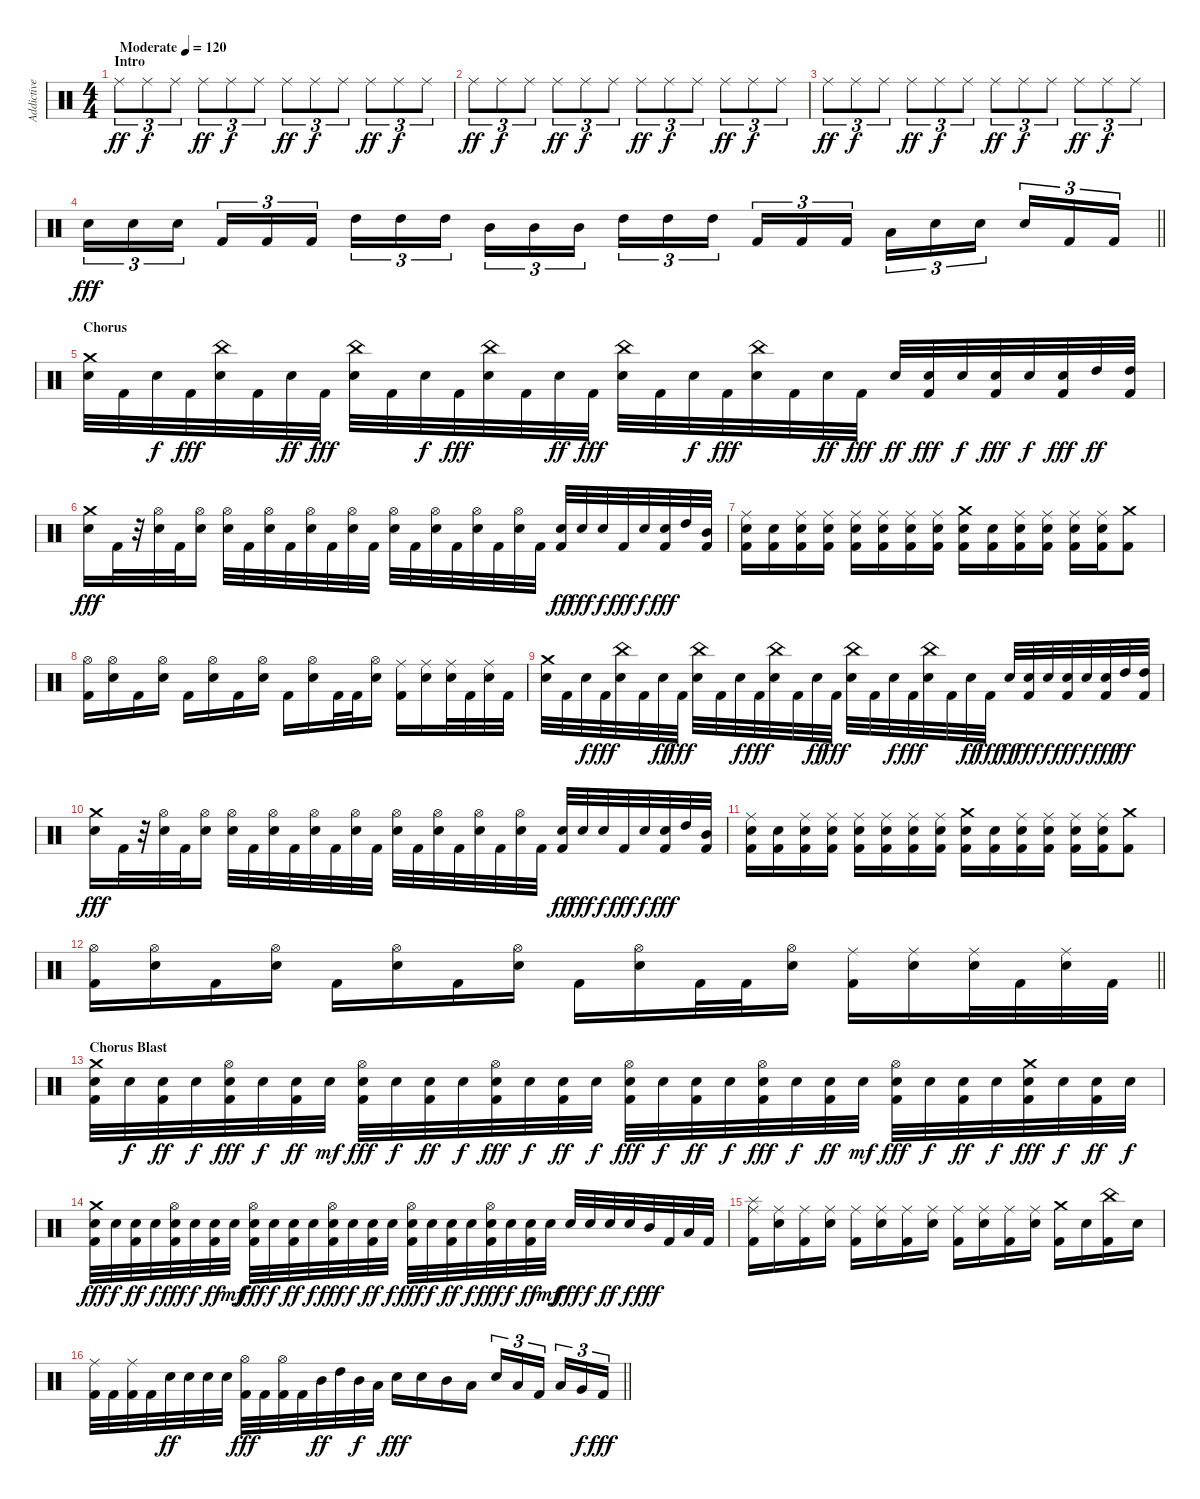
\track ("Addictive Drums 07" "Addictive ") {instrument percussion}
\staff {score}
\articulation defaults
\ts (4 4)
\section ("" "Intro")
\tempo (120 "Moderate")
\clef neutral
\ks c "Ride (middle)".8{tu (3 2) dy ff} "Ride (middle)".8{tu (3 2) dy f} "Ride (middle)".8{tu (3 2)} "Ride (middle)".8{tu (3 2) dy ff} "Ride (middle)".8{tu (3 2) dy f} "Ride (middle)".8{tu (3 2)} "Ride (middle)".8{tu (3 2) dy ff} "Ride (middle)".8{tu (3 2) dy f} "Ride (middle)".8{tu (3 2)} "Ride (middle)".8{tu (3 2) dy ff} "Ride (middle)".8{tu (3 2) dy f} "Ride (middle)".8{tu (3 2)}
|
"Ride (middle)".8{tu (3 2) dy ff} "Ride (middle)".8{tu (3 2) dy f} "Ride (middle)".8{tu (3 2)} "Ride (middle)".8{tu (3 2) dy ff} "Ride (middle)".8{tu (3 2) dy f} "Ride (middle)".8{tu (3 2)} "Ride (middle)".8{tu (3 2) dy ff} "Ride (middle)".8{tu (3 2) dy f} "Ride (middle)".8{tu (3 2)} "Ride (middle)".8{tu (3 2) dy ff} "Ride (middle)".8{tu (3 2) dy f} "Ride (middle)".8{tu (3 2)} |
"Ride (middle)".8{tu (3 2) dy ff} "Ride (middle)".8{tu (3 2) dy f} "Ride (middle)".8{tu (3 2)} "Ride (middle)".8{tu (3 2) dy ff} "Ride (middle)".8{tu (3 2) dy f} "Ride (middle)".8{tu (3 2)} "Ride (middle)".8{tu (3 2) dy ff} "Ride (middle)".8{tu (3 2) dy f} "Ride (middle)".8{tu (3 2)} "Ride (middle)".8{tu (3 2) dy ff} "Ride (middle)".8{tu (3 2) dy f} "Ride (middle)".8{tu (3 2)} |
\barLineRight lightlight "Snare (hit) 2".16{tu (3 2) dy fff} "Snare (hit) 2".16{tu (3 2)} "Snare (hit) 2".16{tu (3 2) beam splitsecondary} "Kick (hit) 2".16{tu (3 2)} "Kick (hit) 2".16{tu (3 2)} "Kick (hit) 2".16{tu (3 2)} "High Tom (hit)".16{tu (3 2)} "High Tom (hit)".16{tu (3 2)} "High Tom (hit)".16{tu (3 2) beam splitsecondary} "Mid Tom (hit)".16{tu (3 2)} "Mid Tom (hit)".16{tu (3 2)} "Mid Tom (hit)".16{tu (3 2)} "High Tom (hit)".16{tu (3 2)} "High Tom (hit)".16{tu (3 2)} "High Tom (hit)".16{tu (3 2) beam splitsecondary} "Kick (hit) 2".16{tu (3 2)} "Kick (hit) 2".16{tu (3 2)} "Kick (hit) 2".16{tu (3 2)} "Low Tom (hit)".16{tu (3 2)} "Snare (hit) 2".16{tu (3 2)} "Snare (hit) 2".16{tu (3 2) beam splitsecondary} "Snare (hit) 2".16{tu (3 2)} "Kick (hit) 2".16{tu (3 2)} "Kick (hit) 2".16{tu (3 2)}
|
\section ("" "Chorus")
("Snare (hit) 2" "Crash medium (hit)").32 "Kick (hit) 2".32 "Snare (hit) 2".32{dy f} "Kick (hit) 2".32{dy fff} ("Snare (hit) 2" "China (hit)").32 "Kick (hit) 2".32 "Snare (hit) 2".32{dy ff} "Kick (hit) 2".32{dy fff} ("Snare (hit) 2" "China (hit)").32 "Kick (hit) 2".32 "Snare (hit) 2".32{dy f} "Kick (hit) 2".32{dy fff} ("Snare (hit) 2" "China (hit)").32 "Kick (hit) 2".32 "Snare (hit) 2".32{dy ff} "Kick (hit) 2".32{dy fff} ("Snare (hit) 2" "China (hit)").32 "Kick (hit) 2".32 "Snare (hit) 2".32{dy f} "Kick (hit) 2".32{dy fff} ("Snare (hit) 2" "China (hit)").32 "Kick (hit) 2".32 "Snare (hit) 2".32{dy ff} "Kick (hit) 2".32{dy fff} "Snare (hit) 2".32{dy ff} ("Kick (hit) 2" "Snare (hit) 2").32{dy fff} "Snare (hit) 2".32{dy f} ("Kick (hit) 2" "Snare (hit) 2").32{dy fff} "Snare (hit) 2".32{dy f} ("Kick (hit) 2" "Snare (hit) 2").32{dy fff} "High Tom (hit)".32{dy ff} ("Kick (hit) 2" "High Tom (hit)").32 |
("Snare (hit) 2" "Crash medium (hit)").16{dy fff} "Kick (hit) 2".32 r.32 ("Snare (hit) 2" "Hi-Hat (open)").32 "Kick (hit) 2".32 ("Snare (hit) 2" "Hi-Hat (open)").16 ("Snare (hit) 2" "Hi-Hat (open)").32 "Kick (hit) 2".32 ("Snare (hit) 2" "Hi-Hat (open)").32 "Kick (hit) 2".32 ("Snare (hit) 2" "Hi-Hat (open)").32 "Kick (hit) 2".32 ("Snare (hit) 2" "Hi-Hat (open)").32 "Kick (hit) 2".32 ("Snare (hit) 2" "Hi-Hat (open)").32 "Kick (hit) 2".32 ("Snare (hit) 2" "Hi-Hat (open)").32 "Kick (hit) 2".32 ("Snare (hit) 2" "Hi-Hat (open)").32 "Kick (hit) 2".32 ("Snare (hit) 2" "Hi-Hat (open)").32 "Kick (hit) 2".32 ("Kick (hit) 2" "Snare (hit) 2").32{dy ff} "Snare (hit) 2".32{dy fff} "Snare (hit) 2".32{dy f} "Kick (hit) 2".32{dy fff} "Snare (hit) 2".32{dy f} ("Kick (hit) 2" "Snare (hit) 2").32{dy fff} "High Tom (hit)".32 ("Kick (hit) 2" "Mid Tom (hit)").32 |
("Kick (hit) 2" "Snare (hit) 2" "Ride (middle)").16 ("Kick (hit) 2" "Snare (hit) 2").16 ("Kick (hit) 2" "Snare (hit) 2" "Ride (middle)").16 ("Kick (hit) 2" "Snare (hit) 2" "Ride (middle)").16 ("Kick (hit) 2" "Snare (hit) 2" "Ride (middle)").16 ("Kick (hit) 2" "Snare (hit) 2" "Ride (middle)").16 ("Kick (hit) 2" "Snare (hit) 2" "Ride (middle)").16 ("Kick (hit) 2" "Snare (hit) 2" "Ride (middle)").16 ("Kick (hit) 2" "Snare (hit) 2" "Crash medium (hit)").16 ("Kick (hit) 2" "Snare (hit) 2").16 ("Kick (hit) 2" "Snare (hit) 2" "Ride (middle)").16 ("Kick (hit) 2" "Snare (hit) 2" "Ride (middle)").16 ("Kick (hit) 2" "Snare (hit) 2" "Ride (middle)").16 ("Kick (hit) 2" "Snare (hit) 2" "Ride (middle)").16 ("Kick (hit) 2" "Crash medium (hit)").8 |
("Kick (hit) 2" "Hi-Hat (open)").16 ("Snare (hit) 2" "Hi-Hat (open)").16 "Kick (hit) 2".16 ("Snare (hit) 2" "Hi-Hat (open)").16 "Kick (hit) 2".16 ("Snare (hit) 2" "Hi-Hat (open)").16 "Kick (hit) 2".16 ("Snare (hit) 2" "Hi-Hat (open)").16 "Kick (hit) 2".16 ("Snare (hit) 2" "Hi-Hat (open)").16 "Kick (hit) 2".32 "Kick (hit) 2".32 ("Snare (hit) 2" "Hi-Hat (open)").16 ("Kick (hit) 2" "Ride (middle)").16 ("Snare (hit) 2" "Ride (middle)").16 ("Snare (hit) 2" "Ride (middle)").32 "Kick (hit) 2".32 ("Snare (hit) 2" "Ride (middle)").32 "Kick (hit) 2".32 |
("Snare (hit) 2" "Crash medium (hit)").32 "Kick (hit) 2".32 "Snare (hit) 2".32{dy f} "Kick (hit) 2".32{dy fff} ("Snare (hit) 2" "China (hit)").32 "Kick (hit) 2".32 "Snare (hit) 2".32{dy ff} "Kick (hit) 2".32{dy fff} ("Snare (hit) 2" "China (hit)").32 "Kick (hit) 2".32 "Snare (hit) 2".32{dy f} "Kick (hit) 2".32{dy fff} ("Snare (hit) 2" "China (hit)").32 "Kick (hit) 2".32 "Snare (hit) 2".32{dy ff} "Kick (hit) 2".32{dy fff} ("Snare (hit) 2" "China (hit)").32 "Kick (hit) 2".32 "Snare (hit) 2".32{dy f} "Kick (hit) 2".32{dy fff} ("Snare (hit) 2" "China (hit)").32 "Kick (hit) 2".32 "Snare (hit) 2".32{dy ff} "Kick (hit) 2".32{dy fff} "Snare (hit) 2".32{dy ff} ("Kick (hit) 2" "Snare (hit) 2").32{dy fff} "Snare (hit) 2".32{dy f} ("Kick (hit) 2" "Snare (hit) 2").32{dy fff} "Snare (hit) 2".32{dy f} ("Kick (hit) 2" "Snare (hit) 2").32{dy fff} "High Tom (hit)".32{dy ff} ("Kick (hit) 2" "High Tom (hit)").32 |
("Snare (hit) 2" "Crash medium (hit)").16{dy fff} "Kick (hit) 2".32 r.32 ("Snare (hit) 2" "Hi-Hat (open)").32 "Kick (hit) 2".32 ("Snare (hit) 2" "Hi-Hat (open)").16 ("Snare (hit) 2" "Hi-Hat (open)").32 "Kick (hit) 2".32 ("Snare (hit) 2" "Hi-Hat (open)").32 "Kick (hit) 2".32 ("Snare (hit) 2" "Hi-Hat (open)").32 "Kick (hit) 2".32 ("Snare (hit) 2" "Hi-Hat (open)").32 "Kick (hit) 2".32 ("Snare (hit) 2" "Hi-Hat (open)").32 "Kick (hit) 2".32 ("Snare (hit) 2" "Hi-Hat (open)").32 "Kick (hit) 2".32 ("Snare (hit) 2" "Hi-Hat (open)").32 "Kick (hit) 2".32 ("Snare (hit) 2" "Hi-Hat (open)").32 "Kick (hit) 2".32 ("Kick (hit) 2" "Snare (hit) 2").32{dy ff} "Snare (hit) 2".32{dy fff} "Snare (hit) 2".32{dy f} "Kick (hit) 2".32{dy fff} "Snare (hit) 2".32{dy f} ("Kick (hit) 2" "Snare (hit) 2").32{dy fff} "High Tom (hit)".32 ("Kick (hit) 2" "Mid Tom (hit)").32 |
("Kick (hit) 2" "Snare (hit) 2" "Ride (middle)").16 ("Kick (hit) 2" "Snare (hit) 2").16 ("Kick (hit) 2" "Snare (hit) 2" "Ride (middle)").16 ("Kick (hit) 2" "Snare (hit) 2" "Ride (middle)").16 ("Kick (hit) 2" "Snare (hit) 2" "Ride (middle)").16 ("Kick (hit) 2" "Snare (hit) 2" "Ride (middle)").16 ("Kick (hit) 2" "Snare (hit) 2" "Ride (middle)").16 ("Kick (hit) 2" "Snare (hit) 2" "Ride (middle)").16 ("Kick (hit) 2" "Snare (hit) 2" "Crash medium (hit)").16 ("Kick (hit) 2" "Snare (hit) 2").16 ("Kick (hit) 2" "Snare (hit) 2" "Ride (middle)").16 ("Kick (hit) 2" "Snare (hit) 2" "Ride (middle)").16 ("Kick (hit) 2" "Snare (hit) 2" "Ride (middle)").16 ("Kick (hit) 2" "Snare (hit) 2" "Ride (middle)").16 ("Kick (hit) 2" "Crash medium (hit)").8 |
\barLineRight lightlight
("Kick (hit) 2" "Hi-Hat (open)").16 ("Snare (hit) 2" "Hi-Hat (open)").16 "Kick (hit) 2".16 ("Snare (hit) 2" "Hi-Hat (open)").16 "Kick (hit) 2".16 ("Snare (hit) 2" "Hi-Hat (open)").16 "Kick (hit) 2".16 ("Snare (hit) 2" "Hi-Hat (open)").16 "Kick (hit) 2".16 ("Snare (hit) 2" "Hi-Hat (open)").16 "Kick (hit) 2".32 "Kick (hit) 2".32 ("Snare (hit) 2" "Hi-Hat (open)").16 ("Kick (hit) 2" "Ride (middle)").16 ("Snare (hit) 2" "Ride (middle)").16 ("Snare (hit) 2" "Ride (middle)").32 "Kick (hit) 2".32 ("Snare (hit) 2" "Ride (middle)").32 "Kick (hit) 2".32 |
\section ("" "Chorus Blast")
("Kick (hit) 2" "Snare (hit) 2" "Crash medium (hit)").32 "Snare (hit) 2".32{dy f} ("Kick (hit) 2" "Snare (hit) 2").32{dy ff} "Snare (hit) 2".32{dy f} ("Kick (hit) 2" "Snare (hit) 2" "Hi-Hat (open)").32{dy fff} "Snare (hit) 2".32{dy f} ("Kick (hit) 2" "Snare (hit) 2").32{dy ff} "Snare (hit) 2".32{dy mf} ("Kick (hit) 2" "Snare (hit) 2" "Hi-Hat (open)").32{dy fff} "Snare (hit) 2".32{dy f} ("Kick (hit) 2" "Snare (hit) 2").32{dy ff} "Snare (hit) 2".32{dy f} ("Kick (hit) 2" "Snare (hit) 2" "Hi-Hat (open)").32{dy fff} "Snare (hit) 2".32{dy f} ("Kick (hit) 2" "Snare (hit) 2").32{dy ff} "Snare (hit) 2".32{dy f} ("Kick (hit) 2" "Snare (hit) 2" "Hi-Hat (open)").32{dy fff} "Snare (hit) 2".32{dy f} ("Kick (hit) 2" "Snare (hit) 2").32{dy ff} "Snare (hit) 2".32{dy f} ("Kick (hit) 2" "Snare (hit) 2" "Hi-Hat (open)").32{dy fff} "Snare (hit) 2".32{dy f} ("Kick (hit) 2" "Snare (hit) 2").32{dy ff} "Snare (hit) 2".32{dy mf} ("Kick (hit) 2" "Snare (hit) 2" "Hi-Hat (open)").32{dy fff} "Snare (hit) 2".32{dy f} ("Kick (hit) 2" "Snare (hit) 2").32{dy ff} "Snare (hit) 2".32{dy f} ("Kick (hit) 2" "Snare (hit) 2" "Crash medium (hit)").32{dy fff} "Snare (hit) 2".32{dy f} ("Kick (hit) 2" "Snare (hit) 2").32{dy ff} "Snare (hit) 2".32{dy f} |
("Kick (hit) 2" "Snare (hit) 2" "Crash medium (hit)").32{dy fff} "Snare (hit) 2".32{dy f} ("Kick (hit) 2" "Snare (hit) 2").32{dy ff} "Snare (hit) 2".32{dy f} ("Kick (hit) 2" "Snare (hit) 2" "Hi-Hat (open)").32{dy fff} "Snare (hit) 2".32{dy f} ("Kick (hit) 2" "Snare (hit) 2").32{dy ff} "Snare (hit) 2".32{dy mf} ("Kick (hit) 2" "Snare (hit) 2" "Hi-Hat (open)").32{dy fff} "Snare (hit) 2".32{dy f} ("Kick (hit) 2" "Snare (hit) 2").32{dy ff} "Snare (hit) 2".32{dy f} ("Kick (hit) 2" "Snare (hit) 2" "Hi-Hat (open)").32{dy fff} "Snare (hit) 2".32{dy f} ("Kick (hit) 2" "Snare (hit) 2").32{dy ff} "Snare (hit) 2".32{dy f} ("Kick (hit) 2" "Snare (hit) 2" "Hi-Hat (open)").32{dy fff} "Snare (hit) 2".32{dy f} ("Kick (hit) 2" "Snare (hit) 2").32{dy ff} "Snare (hit) 2".32{dy f} ("Kick (hit) 2" "Snare (hit) 2" "Hi-Hat (open)").32{dy fff} "Snare (hit) 2".32{dy f} ("Kick (hit) 2" "Snare (hit) 2").32{dy ff} "Snare (hit) 2".32{dy mf} "Snare (hit) 2".32{dy fff} "Snare (hit) 2".32{dy f} "Snare (hit) 2".32{dy ff} "Snare (hit) 2".32{dy f} "Mid Tom (hit)".32{dy fff} "Kick (hit) 2".32 "Low Tom (hit)".32 "Kick (hit) 2".32 |
("Kick (hit) 2" "Ride (middle)" "Splash (hit)").16 ("Snare (hit) 2" "Ride (middle)").16 ("Kick (hit) 2" "Ride (middle)").16 ("Snare (hit) 2" "Ride (middle)").16 ("Kick (hit) 2" "Ride (middle)").16 ("Snare (hit) 2" "Ride (middle)").16 ("Kick (hit) 2" "Ride (middle)").16 ("Snare (hit) 2" "Ride (middle)").16 ("Kick (hit) 2" "Ride (middle)").16 ("Snare (hit) 2" "Ride (middle)").16 ("Kick (hit) 2" "Ride (middle)").16 ("Snare (hit) 2" "Ride (middle)").16 ("Kick (hit) 2" "Crash medium (hit)").16 "Snare (hit) 2".16 ("Kick (hit) 2" "China (hit)").16 "Snare (hit) 2".16 |
\barLineRight lightlight
("Kick (hit) 2" "Ride (middle)").32 "Kick (hit) 2".32 ("Kick (hit) 2" "Ride (middle)").32 "Kick (hit) 2".32 "Snare (hit) 2".32{dy ff} "Snare (hit) 2".32 "Snare (hit) 2".32 "Snare (hit) 2".32 ("Kick (hit) 2" "Hi-Hat (open)").32{dy fff} "Kick (hit) 2".32 ("Kick (hit) 2" "Hi-Hat (open)").32 "Kick (hit) 2".32 "Mid Tom (hit)".32{dy ff} "High Tom (hit)".32 "Mid Tom (hit)".32{dy f} "Low Tom (hit)".32 "Snare (hit) 2".16{dy fff} "Snare (hit) 2".16 "Mid Tom (hit)".16 "Low Tom (hit)".16 "Snare (hit) 2".16{tu (3 2)} "Low Tom (hit)".16{tu (3 2)} "Kick (hit) 2".16{tu (3 2) beam splitsecondary} "Low Tom (hit)".16{tu (3 2)} "Very Low Tom (hit)".16{tu (3 2) dy f} "Kick (hit) 2".16{tu (3 2) dy fff}
